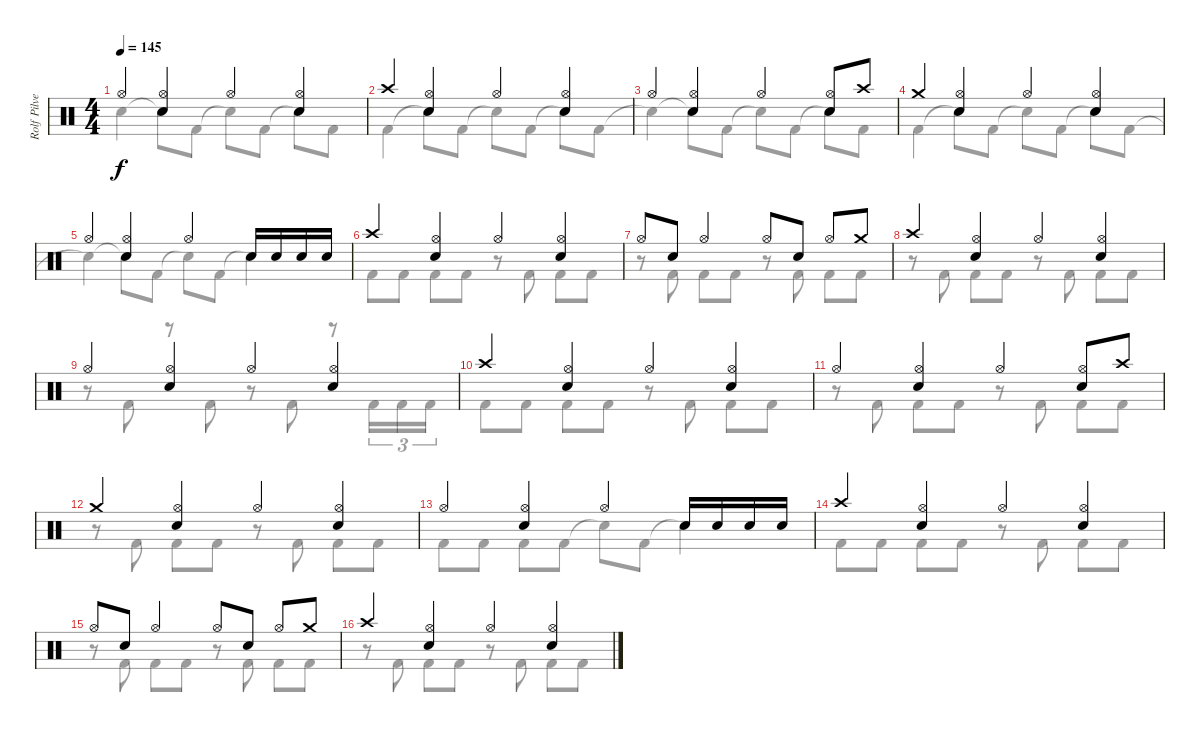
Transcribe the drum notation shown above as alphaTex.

\track ("Rolf Pilve - drums" "Rolf Pilve") {instrument percussion}
\staff {score}
\articulation defaults
\voice
\ts (4 4)
\tempo 145
\clef neutral
\ks aminor "Hi-Hat (open)".4{dy f}
("Hi-Hat (open)" "Electric Snare (hit)").4 "Hi-Hat (open)".4 ("Hi-Hat (open)" "Electric Snare (hit)").4 |
"Crash high (hit)".4 ("Hi-Hat (open)" "Electric Snare (hit)").4 "Hi-Hat (open)".4 ("Hi-Hat (open)" "Electric Snare (hit)").4 |
"Hi-Hat (open)".4 ("Hi-Hat (open)" "Electric Snare (hit)").4 "Hi-Hat (open)".4 ("Hi-Hat (open)" "Electric Snare (hit)").8 "Crash high (hit)".8 |
"Crash medium (hit)".4 ("Hi-Hat (open)" "Electric Snare (hit)").4 "Hi-Hat (open)".4 ("Hi-Hat (open)" "Electric Snare (hit)").4 |
"Hi-Hat (open)".4 ("Hi-Hat (open)" "Electric Snare (hit)").4 "Hi-Hat (open)".4 "Electric Snare (hit)".16 "Electric Snare (hit)".16 "Electric Snare (hit)".16 "Electric Snare (hit)".16 |
"Crash high (hit)".4 ("Hi-Hat (open)" "Electric Snare (hit)").4 "Hi-Hat (open)".4 ("Hi-Hat (open)" "Electric Snare (hit)").4 |
"Hi-Hat (open)".8 "Electric Snare (hit)".8 "Hi-Hat (open)".4 "Hi-Hat (open)".8 "Electric Snare (hit)".8 "Hi-Hat (open)".8 "Crash medium (hit)".8 |
"Crash high (hit)".4 ("Hi-Hat (open)" "Electric Snare (hit)").4 "Hi-Hat (open)".4 ("Hi-Hat (open)" "Electric Snare (hit)").4 |
"Hi-Hat (open)".4 ("Hi-Hat (open)" "Electric Snare (hit)").4 "Hi-Hat (open)".4 ("Hi-Hat (open)" "Electric Snare (hit)").4 |
"Crash high (hit)".4 ("Hi-Hat (open)" "Electric Snare (hit)").4 "Hi-Hat (open)".4 ("Hi-Hat (open)" "Electric Snare (hit)").4 |
"Hi-Hat (open)".4 ("Hi-Hat (open)" "Electric Snare (hit)").4 "Hi-Hat (open)".4 ("Hi-Hat (open)" "Electric Snare (hit)").8 "Crash high (hit)".8 |
"Crash medium (hit)".4 ("Hi-Hat (open)" "Electric Snare (hit)").4 "Hi-Hat (open)".4 ("Hi-Hat (open)" "Electric Snare (hit)").4 |
"Hi-Hat (open)".4 ("Hi-Hat (open)" "Electric Snare (hit)").4 "Hi-Hat (open)".4 "Electric Snare (hit)".16 "Electric Snare (hit)".16 "Electric Snare (hit)".16 "Electric Snare (hit)".16 |
"Crash high (hit)".4 ("Hi-Hat (open)" "Electric Snare (hit)").4 "Hi-Hat (open)".4 ("Hi-Hat (open)" "Electric Snare (hit)").4 |
"Hi-Hat (open)".8 "Electric Snare (hit)".8 "Hi-Hat (open)".4 "Hi-Hat (open)".8 "Electric Snare (hit)".8 "Hi-Hat (open)".8 "Crash medium (hit)".8 |
"Crash high (hit)".4 ("Hi-Hat (open)" "Electric Snare (hit)").4 "Hi-Hat (open)".4 ("Hi-Hat (open)" "Electric Snare (hit)").4
\voice
\clef neutral
\ottava regular
\simile none
\ks aminor "Snare (hit)"{t}.4{dy f} "Snare (hit)"{t}.8 "Kick (hit) 2".8 "Snare (hit)"{t}.8 "Kick (hit) 2".8 "Snare (hit)"{t}.8 "Kick (hit) 2".8
|
"Kick (hit) 2".4 "Snare (hit)"{t}.8 "Kick (hit) 2".8 "Snare (hit)"{t}.8 "Kick (hit) 2".8 "Snare (hit)"{t}.8 "Kick (hit) 2".8 |
"Snare (hit)"{t}.4 "Snare (hit)"{t}.8 "Kick (hit) 2".8 "Snare (hit)"{t}.8 "Kick (hit) 2".8 "Snare (hit)"{t}.8 "Kick (hit) 2".8 |
"Kick (hit) 2".4 "Snare (hit)"{t}.8 "Kick (hit) 2".8 "Snare (hit)"{t}.8 "Kick (hit) 2".8 "Snare (hit)"{t}.8 "Kick (hit) 2".8 |
"Snare (hit)"{t}.4 "Snare (hit)"{t}.8 "Kick (hit) 2".8 "Snare (hit)"{t}.8 "Kick (hit) 2".8 "Snare (hit)"{t}.4 |
"Kick (hit) 2".8 "Kick (hit) 2".8 "Kick (hit) 2".8 "Kick (hit) 2".8 r.8 "Kick (hit) 2".8 "Kick (hit) 2".8 "Kick (hit) 2".8 |
r.8 "Kick (hit) 2".8 "Kick (hit) 2".8 "Kick (hit) 2".8 r.8 "Kick (hit) 2".8 "Kick (hit) 2".8 "Kick (hit) 2".8 |
r.8 "Kick (hit) 2".8 "Kick (hit) 2".8 "Kick (hit) 2".8 r.8 "Kick (hit) 2".8 "Kick (hit) 2".8 "Kick (hit) 2".8 |
r.8 "Kick (hit) 2".8 r.8 "Kick (hit) 2".8 r.8 "Kick (hit) 2".8 r.8 "Kick (hit) 2".16{tu (3 2)} "Kick (hit) 2".16{tu (3 2)} "Kick (hit) 2".16{tu (3 2)} |
"Kick (hit) 2".8 "Kick (hit) 2".8 "Kick (hit) 2".8 "Kick (hit) 2".8 r.8 "Kick (hit) 2".8 "Kick (hit) 2".8 "Kick (hit) 2".8 |
r.8 "Kick (hit) 2".8 "Kick (hit) 2".8 "Kick (hit) 2".8 r.8 "Kick (hit) 2".8 "Kick (hit) 2".8 "Kick (hit) 2".8 |
r.8 "Kick (hit) 2".8 "Kick (hit) 2".8 "Kick (hit) 2".8 r.8 "Kick (hit) 2".8 "Kick (hit) 2".8 "Kick (hit) 2".8 |
"Kick (hit) 2".8 "Kick (hit) 2".8 "Kick (hit) 2".8 "Kick (hit) 2".8 "Snare (hit)"{t}.8 "Kick (hit) 2".8 "Snare (hit)"{t}.4 |
"Kick (hit) 2".8 "Kick (hit) 2".8 "Kick (hit) 2".8 "Kick (hit) 2".8 r.8 "Kick (hit) 2".8 "Kick (hit) 2".8 "Kick (hit) 2".8 |
r.8 "Kick (hit) 2".8 "Kick (hit) 2".8 "Kick (hit) 2".8 r.8 "Kick (hit) 2".8 "Kick (hit) 2".8 "Kick (hit) 2".8 |
r.8 "Kick (hit) 2".8 "Kick (hit) 2".8 "Kick (hit) 2".8 r.8 "Kick (hit) 2".8 "Kick (hit) 2".8 "Kick (hit) 2".8
